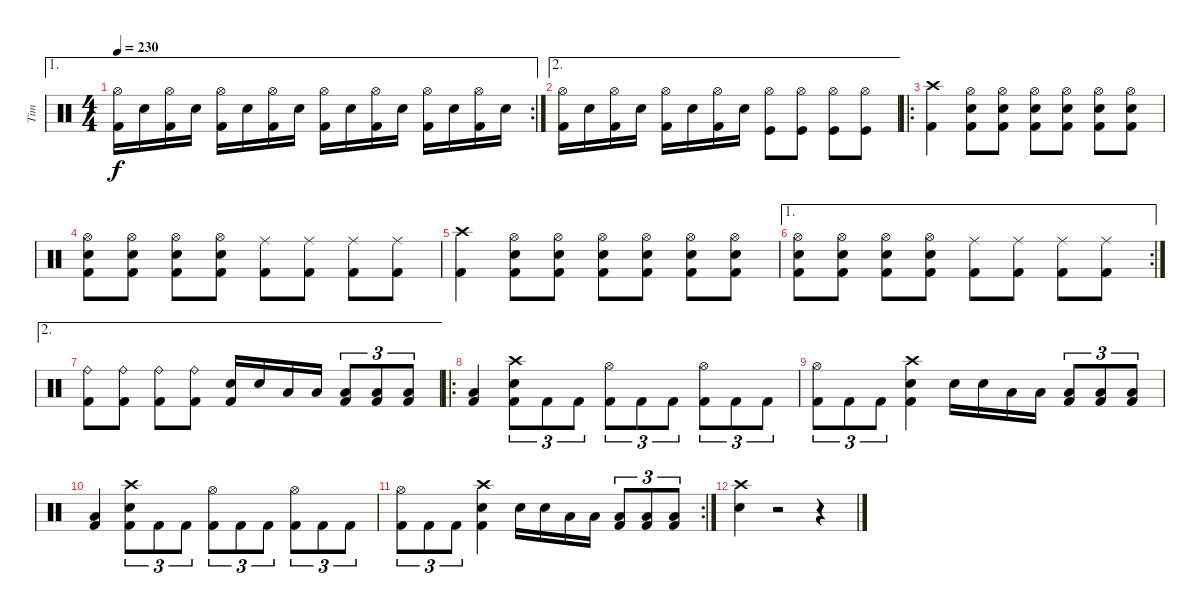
\track ("Tim" "Tim") {instrument percussion}
\staff {score}
\articulation defaults
\ae 1
\rc 2
\ts (4 4)
\tempo 230
\clef neutral
\ks c
("Hi-Hat (open)" "Kick (hit) 2").16{dy f} "Snare (hit) 2".16 ("Hi-Hat (open)" "Kick (hit) 2").16 "Snare (hit) 2".16 ("Hi-Hat (open)" "Kick (hit) 2").16 "Snare (hit) 2".16 ("Hi-Hat (open)" "Kick (hit) 2").16 "Snare (hit) 2".16 ("Hi-Hat (open)" "Kick (hit) 2").16 "Snare (hit) 2".16 ("Hi-Hat (open)" "Kick (hit) 2").16 "Snare (hit) 2".16 ("Hi-Hat (open)" "Kick (hit) 2").16 "Snare (hit) 2".16 ("Hi-Hat (open)" "Kick (hit) 2").16 "Snare (hit) 2".16 |
\ae 2
("Hi-Hat (open)" "Kick (hit) 2").16 "Snare (hit) 2".16 ("Hi-Hat (open)" "Kick (hit) 2").16 "Snare (hit) 2".16 ("Hi-Hat (open)" "Kick (hit) 2").16 "Snare (hit) 2".16 ("Hi-Hat (open)" "Kick (hit) 2").16 "Snare (hit) 2".16 ("Hi-Hat (open)" "Kick (hit)").8 ("Hi-Hat (open)" "Kick (hit)").8 ("Hi-Hat (open)" "Kick (hit)").8 ("Hi-Hat (open)" "Kick (hit)").8 |
\ro
("Crash high (hit)" "Kick (hit) 2").4 ("Snare (hit) 2" "Hi-Hat (open)" "Kick (hit) 2").8 ("Snare (hit) 2" "Hi-Hat (open)" "Kick (hit) 2").8 ("Snare (hit) 2" "Hi-Hat (open)" "Kick (hit) 2").8 ("Snare (hit) 2" "Hi-Hat (open)" "Kick (hit) 2").8 ("Snare (hit) 2" "Hi-Hat (open)" "Kick (hit) 2").8 ("Snare (hit) 2" "Hi-Hat (open)" "Kick (hit) 2").8 |
("Snare (hit) 2" "Hi-Hat (open)" "Kick (hit) 2").8 ("Snare (hit) 2" "Hi-Hat (open)" "Kick (hit) 2").8 ("Snare (hit) 2" "Hi-Hat (open)" "Kick (hit) 2").8 ("Snare (hit) 2" "Hi-Hat (open)" "Kick (hit) 2").8 ("Ride (middle)" "Kick (hit) 2").8 ("Ride (middle)" "Kick (hit) 2").8 ("Ride (middle)" "Kick (hit) 2").8 ("Ride (middle)" "Kick (hit) 2").8 |
("Crash high (hit)" "Kick (hit) 2").4 ("Snare (hit) 2" "Hi-Hat (open)" "Kick (hit) 2").8 ("Snare (hit) 2" "Hi-Hat (open)" "Kick (hit) 2").8 ("Snare (hit) 2" "Hi-Hat (open)" "Kick (hit) 2").8 ("Snare (hit) 2" "Hi-Hat (open)" "Kick (hit) 2").8 ("Snare (hit) 2" "Hi-Hat (open)" "Kick (hit) 2").8 ("Snare (hit) 2" "Hi-Hat (open)" "Kick (hit) 2").8 |
\ae 1
\rc 2
("Snare (hit) 2" "Hi-Hat (open)" "Kick (hit) 2").8 ("Snare (hit) 2" "Hi-Hat (open)" "Kick (hit) 2").8 ("Snare (hit) 2" "Hi-Hat (open)" "Kick (hit) 2").8 ("Snare (hit) 2" "Hi-Hat (open)" "Kick (hit) 2").8 ("Ride (middle)" "Kick (hit) 2").8 ("Ride (middle)" "Kick (hit) 2").8 ("Ride (middle)" "Kick (hit) 2").8 ("Ride (middle)" "Kick (hit) 2").8 |
\ae 2
("Ride (bell)" "Kick (hit) 2").8 ("Ride (bell)" "Kick (hit) 2").8 ("Ride (bell)" "Kick (hit) 2").8 ("Ride (bell)" "Kick (hit) 2").8 ("Snare (hit) 2" "Kick (hit) 2").16 "Snare (hit) 2".16 "Low Tom (hit)".16 "Low Tom (hit)".16 ("Low Floor Tom (hit)" "Kick (hit) 2").8{tu (3 2)} ("Low Floor Tom (hit)" "Kick (hit) 2").8{tu (3 2)} ("Low Floor Tom (hit)" "Kick (hit) 2").8{tu (3 2)} |
\ro
("Low Floor Tom (hit)" "Kick (hit) 2").4 ("Snare (hit) 2" "Crash high (hit)" "Kick (hit) 2").8{tu (3 2)} "Kick (hit) 2".8{tu (3 2)} "Kick (hit) 2".8{tu (3 2)} ("Hi-Hat (open)" "Kick (hit) 2").8{tu (3 2)} "Kick (hit) 2".8{tu (3 2)} "Kick (hit) 2".8{tu (3 2)} ("Hi-Hat (open)" "Kick (hit) 2").8{tu (3 2)} "Kick (hit) 2".8{tu (3 2)} "Kick (hit) 2".8{tu (3 2)} |
("Hi-Hat (open)" "Kick (hit) 2").8{tu (3 2)} "Kick (hit) 2".8{tu (3 2)} "Kick (hit) 2".8{tu (3 2)} ("Snare (hit) 2" "Crash high (hit)" "Kick (hit) 2").4 "Snare (hit) 2".16 "Snare (hit) 2".16 "Low Tom (hit)".16 "Low Tom (hit)".16 ("Kick (hit) 2" "Low Floor Tom (hit)").8{tu (3 2)} ("Kick (hit) 2" "Low Floor Tom (hit)").8{tu (3 2)} ("Kick (hit) 2" "Low Floor Tom (hit)").8{tu (3 2)} |
("Low Floor Tom (hit)" "Kick (hit) 2").4 ("Snare (hit) 2" "Crash high (hit)" "Kick (hit) 2").8{tu (3 2)} "Kick (hit) 2".8{tu (3 2)} "Kick (hit) 2".8{tu (3 2)} ("Hi-Hat (open)" "Kick (hit) 2").8{tu (3 2)} "Kick (hit) 2".8{tu (3 2)} "Kick (hit) 2".8{tu (3 2)} ("Hi-Hat (open)" "Kick (hit) 2").8{tu (3 2)} "Kick (hit) 2".8{tu (3 2)} "Kick (hit) 2".8{tu (3 2)} |
\rc 2
("Hi-Hat (open)" "Kick (hit) 2").8{tu (3 2)} "Kick (hit) 2".8{tu (3 2)} "Kick (hit) 2".8{tu (3 2)} ("Snare (hit) 2" "Crash high (hit)" "Kick (hit) 2").4 "Snare (hit) 2".16 "Snare (hit) 2".16 "Low Tom (hit)".16 "Low Tom (hit)".16 ("Kick (hit) 2" "Low Floor Tom (hit)").8{tu (3 2)} ("Kick (hit) 2" "Low Floor Tom (hit)").8{tu (3 2)} ("Kick (hit) 2" "Low Floor Tom (hit)").8{tu (3 2)} |
("Snare (hit) 2" "Crash high (hit)").4 r.2 r.4
